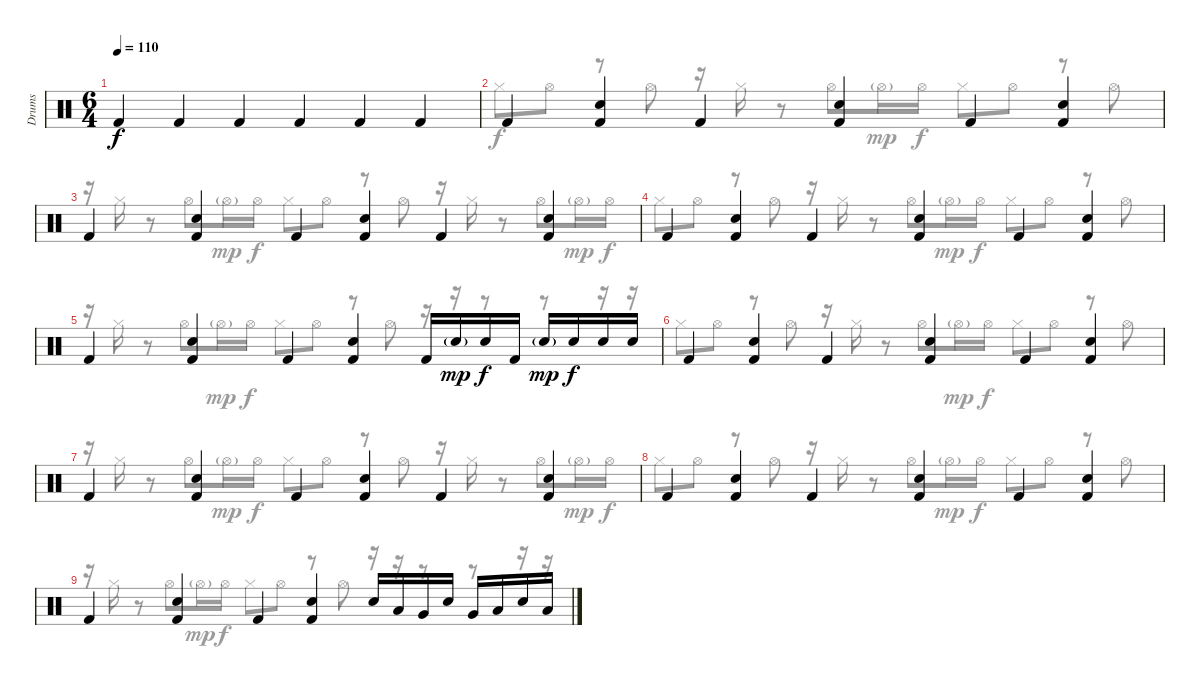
\track ("Drums" "Drums") {instrument percussion}
\staff {score}
\articulation defaults
\voice
\ts (6 4)
\tempo 110
\clef neutral
\ks c "Kick (hit) 2".4{dy f} "Kick (hit) 2".4 "Kick (hit) 2".4 "Kick (hit) 2".4 "Kick (hit) 2".4 "Kick (hit) 2".4
|
"Kick (hit) 2".4 ("Electric Snare (hit)" "Kick (hit) 2").4 "Kick (hit) 2".4 ("Electric Snare (hit)" "Kick (hit) 2").4 "Kick (hit) 2".4 ("Electric Snare (hit)" "Kick (hit) 2").4 |
"Kick (hit) 2".4 ("Electric Snare (hit)" "Kick (hit) 2").4 "Kick (hit) 2".4 ("Electric Snare (hit)" "Kick (hit) 2").4 "Kick (hit) 2".4 ("Electric Snare (hit)" "Kick (hit) 2").4 |
"Kick (hit) 2".4 ("Electric Snare (hit)" "Kick (hit) 2").4 "Kick (hit) 2".4 ("Electric Snare (hit)" "Kick (hit) 2").4 "Kick (hit) 2".4 ("Electric Snare (hit)" "Kick (hit) 2").4 |
"Kick (hit) 2".4 ("Electric Snare (hit)" "Kick (hit) 2").4 "Kick (hit) 2".4 ("Electric Snare (hit)" "Kick (hit) 2").4 "Kick (hit) 2".16 "Electric Snare (hit)"{g}.16{dy mp} "Electric Snare (hit)".16{dy f} "Kick (hit) 2".16 "Electric Snare (hit)"{g}.16{dy mp} "Electric Snare (hit)".16{dy f} "Electric Snare (hit)".16 "Electric Snare (hit)".16 |
"Kick (hit) 2".4 ("Electric Snare (hit)" "Kick (hit) 2").4 "Kick (hit) 2".4 ("Electric Snare (hit)" "Kick (hit) 2").4 "Kick (hit) 2".4 ("Electric Snare (hit)" "Kick (hit) 2").4 |
"Kick (hit) 2".4 ("Electric Snare (hit)" "Kick (hit) 2").4 "Kick (hit) 2".4 ("Electric Snare (hit)" "Kick (hit) 2").4 "Kick (hit) 2".4 ("Electric Snare (hit)" "Kick (hit) 2").4 |
"Kick (hit) 2".4 ("Electric Snare (hit)" "Kick (hit) 2").4 "Kick (hit) 2".4 ("Electric Snare (hit)" "Kick (hit) 2").4 "Kick (hit) 2".4 ("Electric Snare (hit)" "Kick (hit) 2").4 |
"Kick (hit) 2".4 ("Electric Snare (hit)" "Kick (hit) 2").4 "Kick (hit) 2".4 ("Electric Snare (hit)" "Kick (hit) 2").4 "Electric Snare (hit)".16 "Low Tom (hit)".16 "Very Low Tom (hit)".16 "Electric Snare (hit)".16 "Very Low Tom (hit)".16 "Low Floor Tom (hit)".16 "Electric Snare (hit)".16 "Low Floor Tom (hit)".16
\voice
\clef neutral
\ottava regular
\simile none
\ks c
|
"Hi-Hat (closed)".8 "Hi-Hat (open)".8 r.8 "Hi-Hat (open)".8 r.16 "Hi-Hat (closed)".16 r.8 "Hi-Hat (open)".8 "Hi-Hat (open)"{g}.16{dy mp} "Hi-Hat (open)".16{dy f} "Hi-Hat (closed)".8 "Hi-Hat (open)".8 r.8 "Hi-Hat (open)".8 |
r.16 "Hi-Hat (closed)".16 r.8 "Hi-Hat (open)".8 "Hi-Hat (open)"{g}.16{dy mp} "Hi-Hat (open)".16{dy f} "Hi-Hat (closed)".8 "Hi-Hat (open)".8 r.8 "Hi-Hat (open)".8 r.16 "Hi-Hat (closed)".16 r.8 "Hi-Hat (open)".8 "Hi-Hat (open)"{g}.16{dy mp} "Hi-Hat (open)".16{dy f} |
"Hi-Hat (closed)".8 "Hi-Hat (open)".8 r.8 "Hi-Hat (open)".8 r.16 "Hi-Hat (closed)".16 r.8 "Hi-Hat (open)".8 "Hi-Hat (open)"{g}.16{dy mp} "Hi-Hat (open)".16{dy f} "Hi-Hat (closed)".8 "Hi-Hat (open)".8 r.8 "Hi-Hat (open)".8 |
r.16 "Hi-Hat (closed)".16 r.8 "Hi-Hat (open)".8 "Hi-Hat (open)"{g}.16{dy mp} "Hi-Hat (open)".16{dy f} "Hi-Hat (closed)".8 "Hi-Hat (open)".8 r.8 "Hi-Hat (open)".8 r.16 r.16 r.8 r.8 r.16 r.16 |
"Hi-Hat (closed)".8 "Hi-Hat (open)".8 r.8 "Hi-Hat (open)".8 r.16 "Hi-Hat (closed)".16 r.8 "Hi-Hat (open)".8 "Hi-Hat (open)"{g}.16{dy mp} "Hi-Hat (open)".16{dy f} "Hi-Hat (closed)".8 "Hi-Hat (open)".8 r.8 "Hi-Hat (open)".8 |
r.16 "Hi-Hat (closed)".16 r.8 "Hi-Hat (open)".8 "Hi-Hat (open)"{g}.16{dy mp} "Hi-Hat (open)".16{dy f} "Hi-Hat (closed)".8 "Hi-Hat (open)".8 r.8 "Hi-Hat (open)".8 r.16 "Hi-Hat (closed)".16 r.8 "Hi-Hat (open)".8 "Hi-Hat (open)"{g}.16{dy mp} "Hi-Hat (open)".16{dy f} |
"Hi-Hat (closed)".8 "Hi-Hat (open)".8 r.8 "Hi-Hat (open)".8 r.16 "Hi-Hat (closed)".16 r.8 "Hi-Hat (open)".8 "Hi-Hat (open)"{g}.16{dy mp} "Hi-Hat (open)".16{dy f} "Hi-Hat (closed)".8 "Hi-Hat (open)".8 r.8 "Hi-Hat (open)".8 |
r.16 "Hi-Hat (closed)".16 r.8 "Hi-Hat (open)".8 "Hi-Hat (open)"{g}.16{dy mp} "Hi-Hat (open)".16{dy f} "Hi-Hat (closed)".8 "Hi-Hat (open)".8 r.8 "Hi-Hat (open)".8 r.16 r.16 r.8 r.8 r.16 r.16
